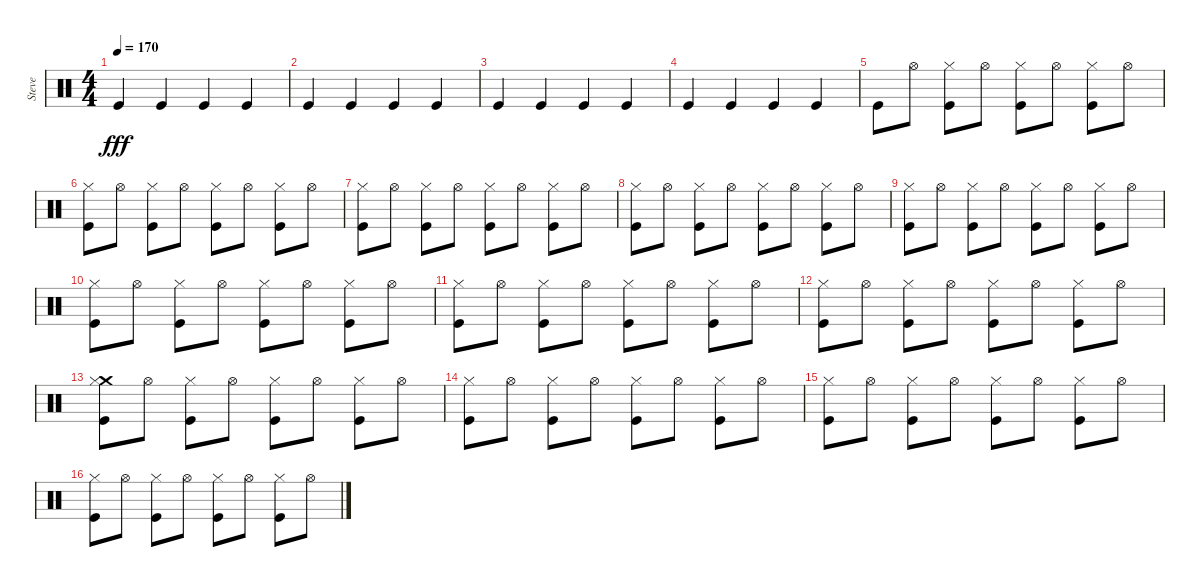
\track ("Steve" "Steve") {instrument percussion}
\staff {score}
\articulation defaults
\ts (4 4)
\tempo 170
\clef neutral
\ks c "Kick (hit)".4{dy fff} "Kick (hit)".4 "Kick (hit)".4 "Kick (hit)".4
|
"Kick (hit)".4 "Kick (hit)".4 "Kick (hit)".4 "Kick (hit)".4 |
"Kick (hit)".4 "Kick (hit)".4 "Kick (hit)".4 "Kick (hit)".4 |
"Kick (hit)".4 "Kick (hit)".4 "Kick (hit)".4 "Kick (hit)".4 |
"Kick (hit)".8 "Hi-Hat (open)".8 ("Hi-Hat (closed)" "Kick (hit)").8 "Hi-Hat (open)".8 ("Hi-Hat (closed)" "Kick (hit)").8 "Hi-Hat (open)".8 ("Hi-Hat (closed)" "Kick (hit)").8 "Hi-Hat (open)".8 |
("Hi-Hat (closed)" "Kick (hit)").8 "Hi-Hat (open)".8 ("Hi-Hat (closed)" "Kick (hit)").8 "Hi-Hat (open)".8 ("Hi-Hat (closed)" "Kick (hit)").8 "Hi-Hat (open)".8 ("Hi-Hat (closed)" "Kick (hit)").8 "Hi-Hat (open)".8 |
("Hi-Hat (closed)" "Kick (hit)").8 "Hi-Hat (open)".8 ("Hi-Hat (closed)" "Kick (hit)").8 "Hi-Hat (open)".8 ("Hi-Hat (closed)" "Kick (hit)").8 "Hi-Hat (open)".8 ("Hi-Hat (closed)" "Kick (hit)").8 "Hi-Hat (open)".8 |
("Hi-Hat (closed)" "Kick (hit)").8 "Hi-Hat (open)".8 ("Hi-Hat (closed)" "Kick (hit)").8 "Hi-Hat (open)".8 ("Hi-Hat (closed)" "Kick (hit)").8 "Hi-Hat (open)".8 ("Hi-Hat (closed)" "Kick (hit)").8 "Hi-Hat (open)".8 |
("Hi-Hat (closed)" "Kick (hit)").8 "Hi-Hat (open)".8 ("Hi-Hat (closed)" "Kick (hit)").8 "Hi-Hat (open)".8 ("Hi-Hat (closed)" "Kick (hit)").8 "Hi-Hat (open)".8 ("Hi-Hat (closed)" "Kick (hit)").8 "Hi-Hat (open)".8 |
("Hi-Hat (closed)" "Kick (hit)").8 "Hi-Hat (open)".8 ("Hi-Hat (closed)" "Kick (hit)").8 "Hi-Hat (open)".8 ("Hi-Hat (closed)" "Kick (hit)").8 "Hi-Hat (open)".8 ("Hi-Hat (closed)" "Kick (hit)").8 "Hi-Hat (open)".8 |
("Hi-Hat (closed)" "Kick (hit)").8 "Hi-Hat (open)".8 ("Hi-Hat (closed)" "Kick (hit)").8 "Hi-Hat (open)".8 ("Hi-Hat (closed)" "Kick (hit)").8 "Hi-Hat (open)".8 ("Hi-Hat (closed)" "Kick (hit)").8 "Hi-Hat (open)".8 |
("Hi-Hat (closed)" "Kick (hit)").8 "Hi-Hat (open)".8 ("Hi-Hat (closed)" "Kick (hit)").8 "Hi-Hat (open)".8 ("Hi-Hat (closed)" "Kick (hit)").8 "Hi-Hat (open)".8 ("Hi-Hat (closed)" "Kick (hit)").8 "Hi-Hat (open)".8 |
("Crash medium (hit)" "Hi-Hat (closed)" "Kick (hit)").8 "Hi-Hat (open)".8 ("Hi-Hat (closed)" "Kick (hit)").8 "Hi-Hat (open)".8 ("Hi-Hat (closed)" "Kick (hit)").8 "Hi-Hat (open)".8 ("Hi-Hat (closed)" "Kick (hit)").8 "Hi-Hat (open)".8 |
("Hi-Hat (closed)" "Kick (hit)").8 "Hi-Hat (open)".8 ("Hi-Hat (closed)" "Kick (hit)").8 "Hi-Hat (open)".8 ("Hi-Hat (closed)" "Kick (hit)").8 "Hi-Hat (open)".8 ("Hi-Hat (closed)" "Kick (hit)").8 "Hi-Hat (open)".8 |
("Hi-Hat (closed)" "Kick (hit)").8 "Hi-Hat (open)".8 ("Hi-Hat (closed)" "Kick (hit)").8 "Hi-Hat (open)".8 ("Hi-Hat (closed)" "Kick (hit)").8 "Hi-Hat (open)".8 ("Hi-Hat (closed)" "Kick (hit)").8 "Hi-Hat (open)".8 |
("Hi-Hat (closed)" "Kick (hit)").8 "Hi-Hat (open)".8 ("Hi-Hat (closed)" "Kick (hit)").8 "Hi-Hat (open)".8 ("Hi-Hat (closed)" "Kick (hit)").8 "Hi-Hat (open)".8 ("Hi-Hat (closed)" "Kick (hit)").8 "Hi-Hat (open)".8
